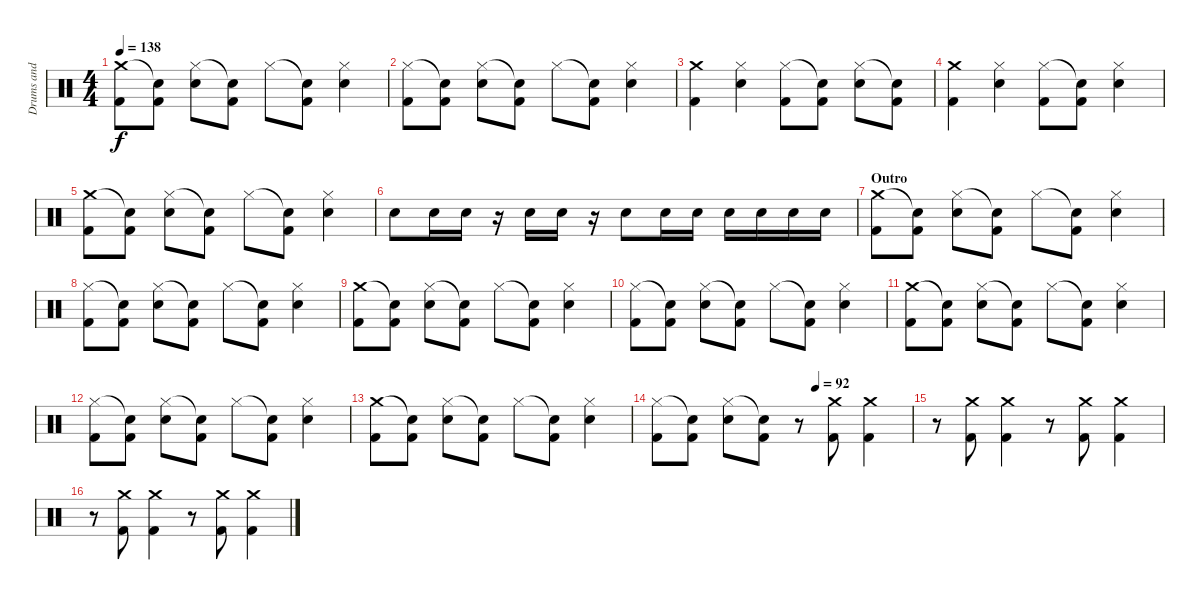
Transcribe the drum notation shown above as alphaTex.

\track ("Drums and Percussion" "Drums and ") {instrument percussion}
\staff {score}
\articulation defaults
\ts (4 4)
\tempo 138
\clef neutral
\ks c
("Crash medium (hit)" "Kick (hit) 2").8{dy f} ("Snare (hit)"{t} "Kick (hit) 2").8 ("Hi-Hat (closed)" "Electric Snare (hit)").8 ("Snare (hit)"{t} "Kick (hit) 2").8 "Hi-Hat (closed)".8 ("Snare (hit)"{t} "Kick (hit) 2").8 ("Hi-Hat (closed)" "Electric Snare (hit)").4 |
("Hi-Hat (closed)" "Kick (hit) 2").8 ("Snare (hit)"{t} "Kick (hit) 2").8 ("Hi-Hat (closed)" "Electric Snare (hit)").8 ("Snare (hit)"{t} "Kick (hit) 2").8 "Hi-Hat (closed)".8 ("Snare (hit)"{t} "Kick (hit) 2").8 ("Hi-Hat (closed)" "Electric Snare (hit)").4 |
("Crash medium (hit)" "Kick (hit) 2").4 ("Hi-Hat (closed)" "Electric Snare (hit)").4 ("Hi-Hat (closed)" "Kick (hit) 2").8 ("Snare (hit)"{t} "Kick (hit) 2").8 ("Hi-Hat (closed)" "Electric Snare (hit)").8 ("Snare (hit)"{t} "Kick (hit) 2").8 |
("Crash medium (hit)" "Kick (hit) 2").4 ("Hi-Hat (closed)" "Electric Snare (hit)").4 ("Hi-Hat (closed)" "Kick (hit) 2").8 ("Snare (hit)"{t} "Kick (hit) 2").8 ("Hi-Hat (closed)" "Electric Snare (hit)").4 |
("Crash medium (hit)" "Kick (hit) 2").8 ("Snare (hit)"{t} "Kick (hit) 2").8 ("Hi-Hat (closed)" "Electric Snare (hit)").8 ("Snare (hit)"{t} "Kick (hit) 2").8 "Hi-Hat (closed)".8 ("Snare (hit)"{t} "Kick (hit) 2").8 ("Hi-Hat (closed)" "Electric Snare (hit)").4 |
"Electric Snare (hit)".8 "Electric Snare (hit)".16 "Electric Snare (hit)".16 r.16 "Electric Snare (hit)".16 "Electric Snare (hit)".16 r.16 "Electric Snare (hit)".8 "Electric Snare (hit)".16 "Electric Snare (hit)".16 "Electric Snare (hit)".16 "Electric Snare (hit)".16 "Electric Snare (hit)".16 "Electric Snare (hit)".16 |
\section ("" "Outro")
("Crash medium (hit)" "Kick (hit) 2").8 ("Snare (hit)"{t} "Kick (hit) 2").8 ("Hi-Hat (closed)" "Electric Snare (hit)").8 ("Snare (hit)"{t} "Kick (hit) 2").8 "Hi-Hat (closed)".8 ("Snare (hit)"{t} "Kick (hit) 2").8 ("Hi-Hat (closed)" "Electric Snare (hit)").4 |
("Hi-Hat (closed)" "Kick (hit) 2").8 ("Snare (hit)"{t} "Kick (hit) 2").8 ("Hi-Hat (closed)" "Electric Snare (hit)").8 ("Snare (hit)"{t} "Kick (hit) 2").8 "Hi-Hat (closed)".8 ("Snare (hit)"{t} "Kick (hit) 2").8 ("Hi-Hat (closed)" "Electric Snare (hit)").4 |
("Crash medium (hit)" "Kick (hit) 2").8 ("Snare (hit)"{t} "Kick (hit) 2").8 ("Hi-Hat (closed)" "Electric Snare (hit)").8 ("Snare (hit)"{t} "Kick (hit) 2").8 "Hi-Hat (closed)".8 ("Snare (hit)"{t} "Kick (hit) 2").8 ("Hi-Hat (closed)" "Electric Snare (hit)").4 |
("Hi-Hat (closed)" "Kick (hit) 2").8 ("Snare (hit)"{t} "Kick (hit) 2").8 ("Hi-Hat (closed)" "Electric Snare (hit)").8 ("Snare (hit)"{t} "Kick (hit) 2").8 "Hi-Hat (closed)".8 ("Snare (hit)"{t} "Kick (hit) 2").8 ("Hi-Hat (closed)" "Electric Snare (hit)").4 |
("Crash medium (hit)" "Kick (hit) 2").8 ("Snare (hit)"{t} "Kick (hit) 2").8 ("Hi-Hat (closed)" "Electric Snare (hit)").8 ("Snare (hit)"{t} "Kick (hit) 2").8 "Hi-Hat (closed)".8 ("Snare (hit)"{t} "Kick (hit) 2").8 ("Hi-Hat (closed)" "Electric Snare (hit)").4 |
("Hi-Hat (closed)" "Kick (hit) 2").8 ("Snare (hit)"{t} "Kick (hit) 2").8 ("Hi-Hat (closed)" "Electric Snare (hit)").8 ("Snare (hit)"{t} "Kick (hit) 2").8 "Hi-Hat (closed)".8 ("Snare (hit)"{t} "Kick (hit) 2").8 ("Hi-Hat (closed)" "Electric Snare (hit)").4 |
("Crash medium (hit)" "Kick (hit) 2").8 ("Snare (hit)"{t} "Kick (hit) 2").8 ("Hi-Hat (closed)" "Electric Snare (hit)").8 ("Snare (hit)"{t} "Kick (hit) 2").8 "Hi-Hat (closed)".8 ("Snare (hit)"{t} "Kick (hit) 2").8 ("Hi-Hat (closed)" "Electric Snare (hit)").4 |
\tempo (92 0.625)
("Hi-Hat (closed)" "Kick (hit) 2").8 ("Snare (hit)"{t} "Kick (hit) 2").8 ("Hi-Hat (closed)" "Electric Snare (hit)").8 ("Snare (hit)"{t} "Kick (hit) 2").8 r.8 ("Crash medium (hit)" "Kick (hit) 2").8 ("Crash medium (hit)" "Kick (hit) 2").4 |
r.8 ("Crash medium (hit)" "Kick (hit) 2").8 ("Crash medium (hit)" "Kick (hit) 2").4 r.8 ("Crash medium (hit)" "Kick (hit) 2").8 ("Crash medium (hit)" "Kick (hit) 2").4 |
r.8 ("Crash medium (hit)" "Kick (hit) 2").8 ("Crash medium (hit)" "Kick (hit) 2").4 r.8 ("Crash medium (hit)" "Kick (hit) 2").8 ("Crash medium (hit)" "Kick (hit) 2").4
